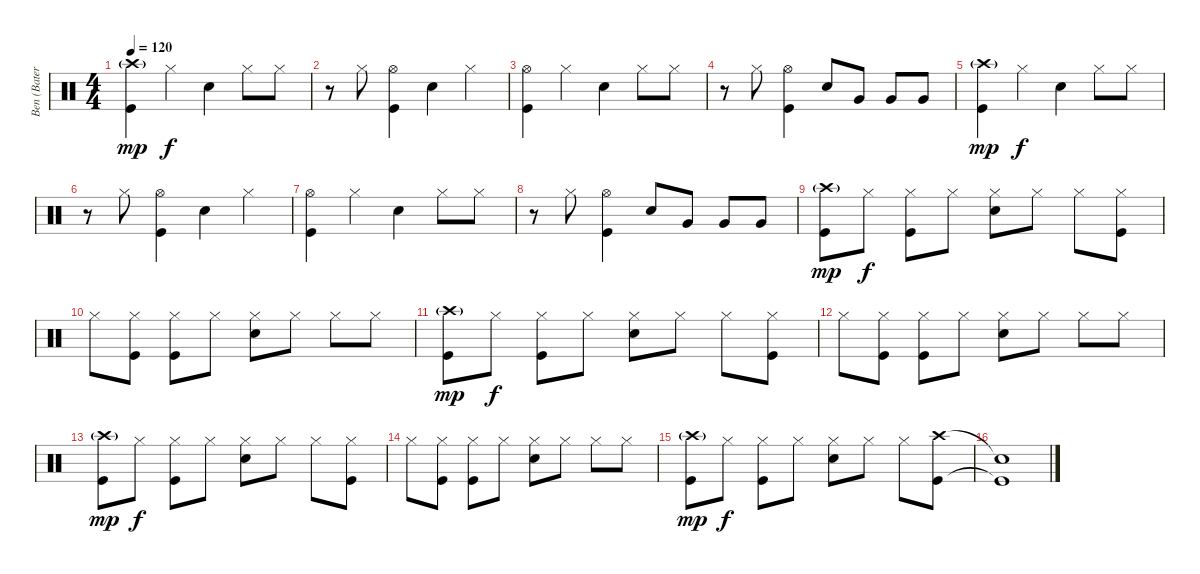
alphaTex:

\track ("Ben (Bateria)" "Ben (Bater") {instrument percussion}
\staff {score}
\articulation defaults
\ts (4 4)
\tempo 120
\clef neutral
\ks c
("Kick (hit)" "Crash high (hit)"{g}).4{dy mp} "Hi-Hat (closed)".4{dy f} "Snare (hit) 2".4 "Hi-Hat (closed)".8 "Hi-Hat (closed)".8 |
r.8 "Hi-Hat (closed)".8 ("Kick (hit)" "Hi-Hat (open)").4 "Snare (hit) 2".4 "Hi-Hat (closed)".4 |
("Kick (hit)" "Hi-Hat (open)").4 "Hi-Hat (closed)".4 "Snare (hit) 2".4 "Hi-Hat (closed)".8 "Hi-Hat (closed)".8 |
r.8 "Hi-Hat (closed)".8 ("Kick (hit)" "Hi-Hat (open)").4 "Snare (hit) 2".8 "Very Low Tom (hit)".8 "Very Low Tom (hit)".8 "Very Low Tom (hit)".8 |
("Kick (hit)" "Crash high (hit)"{g}).4{dy mp} "Hi-Hat (closed)".4{dy f} "Snare (hit) 2".4 "Hi-Hat (closed)".8 "Hi-Hat (closed)".8 |
r.8 "Hi-Hat (closed)".8 ("Kick (hit)" "Hi-Hat (open)").4 "Snare (hit) 2".4 "Hi-Hat (closed)".4 |
("Kick (hit)" "Hi-Hat (open)").4 "Hi-Hat (closed)".4 "Snare (hit) 2".4 "Hi-Hat (closed)".8 "Hi-Hat (closed)".8 |
r.8 "Hi-Hat (closed)".8 ("Kick (hit)" "Hi-Hat (open)").4 "Snare (hit) 2".8 "Very Low Tom (hit)".8 "Very Low Tom (hit)".8 "Very Low Tom (hit)".8 |
("Kick (hit)" "Crash high (hit)"{g}).8{dy mp} "Hi-Hat (closed)".8{dy f} ("Kick (hit)" "Hi-Hat (closed)").8 "Hi-Hat (closed)".8 ("Snare (hit) 2" "Hi-Hat (closed)").8 "Hi-Hat (closed)".8 "Hi-Hat (closed)".8 ("Kick (hit)" "Hi-Hat (closed)").8 |
"Hi-Hat (closed)".8 ("Kick (hit)" "Hi-Hat (closed)").8 ("Kick (hit)" "Hi-Hat (closed)").8 "Hi-Hat (closed)".8 ("Snare (hit) 2" "Hi-Hat (closed)").8 "Hi-Hat (closed)".8 "Hi-Hat (closed)".8 "Hi-Hat (closed)".8 |
("Kick (hit)" "Crash high (hit)"{g}).8{dy mp} "Hi-Hat (closed)".8{dy f} ("Kick (hit)" "Hi-Hat (closed)").8 "Hi-Hat (closed)".8 ("Snare (hit) 2" "Hi-Hat (closed)").8 "Hi-Hat (closed)".8 "Hi-Hat (closed)".8 ("Kick (hit)" "Hi-Hat (closed)").8 |
"Hi-Hat (closed)".8 ("Kick (hit)" "Hi-Hat (closed)").8 ("Kick (hit)" "Hi-Hat (closed)").8 "Hi-Hat (closed)".8 ("Snare (hit) 2" "Hi-Hat (closed)").8 "Hi-Hat (closed)".8 "Hi-Hat (closed)".8 "Hi-Hat (closed)".8 |
("Kick (hit)" "Crash high (hit)"{g}).8{dy mp} "Hi-Hat (closed)".8{dy f} ("Kick (hit)" "Hi-Hat (closed)").8 "Hi-Hat (closed)".8 ("Snare (hit) 2" "Hi-Hat (closed)").8 "Hi-Hat (closed)".8 "Hi-Hat (closed)".8 ("Kick (hit)" "Hi-Hat (closed)").8 |
"Hi-Hat (closed)".8 ("Kick (hit)" "Hi-Hat (closed)").8 ("Kick (hit)" "Hi-Hat (closed)").8 "Hi-Hat (closed)".8 ("Snare (hit) 2" "Hi-Hat (closed)").8 "Hi-Hat (closed)".8 "Hi-Hat (closed)".8 "Hi-Hat (closed)".8 |
("Kick (hit)" "Crash high (hit)"{g}).8{dy mp} "Hi-Hat (closed)".8{dy f} ("Kick (hit)" "Hi-Hat (closed)").8 "Hi-Hat (closed)".8 ("Snare (hit) 2" "Hi-Hat (closed)").8 "Hi-Hat (closed)".8 "Hi-Hat (closed)".8 ("Kick (hit)" "Crash high (hit)").8 |
("Kick (hit)"{t} "Snare (hit)"{t}).1
